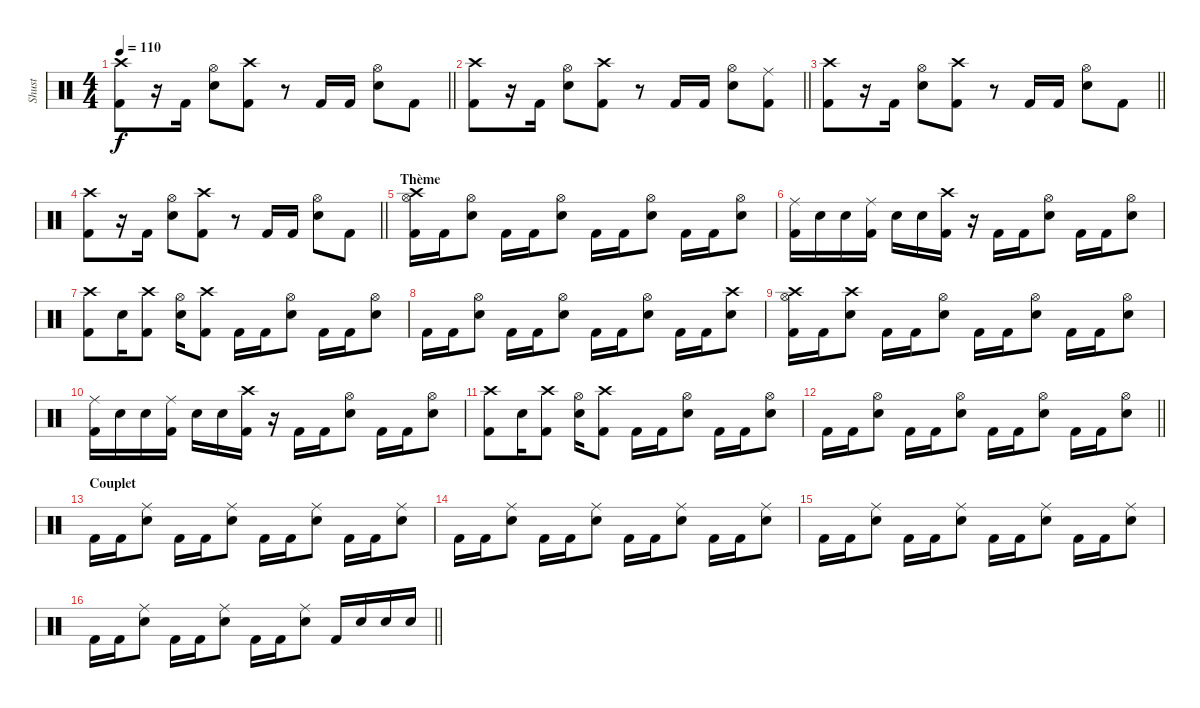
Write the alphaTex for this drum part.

\track ("Shust" "Shust") {instrument percussion}
\staff {score}
\articulation defaults
\ts (4 4)
\tempo 110
\clef neutral
\barLineRight lightlight
\ks c
("Crash high (hit)" "Kick (hit) 2").8{dy f} r.16 "Kick (hit) 2".16 ("Hi-Hat (open)" "Electric Snare (hit)").8 ("Crash high (hit)" "Kick (hit) 2").8 r.8 "Kick (hit) 2".16 "Kick (hit) 2".16 ("Hi-Hat (open)" "Electric Snare (hit)").8 "Kick (hit) 2".8 |
\barLineRight lightlight
("Crash high (hit)" "Kick (hit) 2").8 r.16 "Kick (hit) 2".16 ("Hi-Hat (open)" "Electric Snare (hit)").8 ("Crash high (hit)" "Kick (hit) 2").8 r.8 "Kick (hit) 2".16 "Kick (hit) 2".16 ("Hi-Hat (open)" "Electric Snare (hit)").8 ("Ride (middle)" "Kick (hit) 2").8 |
\barLineRight lightlight
("Crash high (hit)" "Kick (hit) 2").8 r.16 "Kick (hit) 2".16 ("Hi-Hat (open)" "Electric Snare (hit)").8 ("Crash high (hit)" "Kick (hit) 2").8 r.8 "Kick (hit) 2".16 "Kick (hit) 2".16 ("Hi-Hat (open)" "Electric Snare (hit)").8 "Kick (hit) 2".8 |
\barLineRight lightlight
("Crash high (hit)" "Kick (hit) 2").8 r.16 "Kick (hit) 2".16 ("Hi-Hat (open)" "Electric Snare (hit)").8 ("Crash high (hit)" "Kick (hit) 2").8 r.8 "Kick (hit) 2".16 "Kick (hit) 2".16 ("Hi-Hat (open)" "Electric Snare (hit)").8 "Kick (hit) 2".8 |
\section ("" "Thème")
("Crash high (hit)" "Hi-Hat (open)" "Kick (hit) 2").16 "Kick (hit) 2".16 ("Hi-Hat (open)" "Electric Snare (hit)").8 "Kick (hit) 2".16 "Kick (hit) 2".16 ("Hi-Hat (open)" "Electric Snare (hit)").8 "Kick (hit) 2".16 "Kick (hit) 2".16 ("Hi-Hat (open)" "Electric Snare (hit)").8 "Kick (hit) 2".16 "Kick (hit) 2".16 ("Hi-Hat (open)" "Electric Snare (hit)").8 |
("Ride (middle)" "Kick (hit) 2").16 "Electric Snare (hit)".16 "Electric Snare (hit)".16 ("Ride (middle)" "Kick (hit) 2").16 "Electric Snare (hit)".16 "Electric Snare (hit)".16 ("Crash high (hit)" "Kick (hit) 2").16 r.16 "Kick (hit) 2".16 "Kick (hit) 2".16 ("Hi-Hat (open)" "Electric Snare (hit)").8 "Kick (hit) 2".16 "Kick (hit) 2".16 ("Hi-Hat (open)" "Electric Snare (hit)").8 |
("Crash high (hit)" "Kick (hit) 2").8 "Electric Snare (hit)".16 ("Crash high (hit)" "Kick (hit) 2").8 ("Hi-Hat (open)" "Electric Snare (hit)").16 ("Crash high (hit)" "Kick (hit) 2").8 "Kick (hit) 2".16 "Kick (hit) 2".16 ("Hi-Hat (open)" "Electric Snare (hit)").8 "Kick (hit) 2".16 "Kick (hit) 2".16 ("Hi-Hat (open)" "Electric Snare (hit)").8 |
"Kick (hit) 2".16 "Kick (hit) 2".16 ("Hi-Hat (open)" "Electric Snare (hit)").8 "Kick (hit) 2".16 "Kick (hit) 2".16 ("Hi-Hat (open)" "Electric Snare (hit)").8 "Kick (hit) 2".16 "Kick (hit) 2".16 ("Hi-Hat (open)" "Electric Snare (hit)").8 "Kick (hit) 2".16 "Kick (hit) 2".16 ("Crash high (hit)" "Electric Snare (hit)").8 |
("Crash high (hit)" "Hi-Hat (open)" "Kick (hit) 2").16 "Kick (hit) 2".16 ("Crash high (hit)" "Electric Snare (hit)").8 "Kick (hit) 2".16 "Kick (hit) 2".16 ("Hi-Hat (open)" "Electric Snare (hit)").8 "Kick (hit) 2".16 "Kick (hit) 2".16 ("Hi-Hat (open)" "Electric Snare (hit)").8 "Kick (hit) 2".16 "Kick (hit) 2".16 ("Hi-Hat (open)" "Electric Snare (hit)").8 |
("Ride (middle)" "Kick (hit) 2").16 "Electric Snare (hit)".16 "Electric Snare (hit)".16 ("Ride (middle)" "Kick (hit) 2").16 "Electric Snare (hit)".16 "Electric Snare (hit)".16 ("Crash high (hit)" "Kick (hit) 2").16 r.16 "Kick (hit) 2".16 "Kick (hit) 2".16 ("Hi-Hat (open)" "Electric Snare (hit)").8 "Kick (hit) 2".16 "Kick (hit) 2".16 ("Hi-Hat (open)" "Electric Snare (hit)").8 |
("Crash high (hit)" "Kick (hit) 2").8 "Electric Snare (hit)".16 ("Crash high (hit)" "Kick (hit) 2").8 ("Hi-Hat (open)" "Electric Snare (hit)").16 ("Crash high (hit)" "Kick (hit) 2").8 "Kick (hit) 2".16 "Kick (hit) 2".16 ("Hi-Hat (open)" "Electric Snare (hit)").8 "Kick (hit) 2".16 "Kick (hit) 2".16 ("Hi-Hat (open)" "Electric Snare (hit)").8 |
\barLineRight lightlight "Kick (hit) 2".16 "Kick (hit) 2".16
("Hi-Hat (open)" "Electric Snare (hit)").8 "Kick (hit) 2".16 "Kick (hit) 2".16 ("Hi-Hat (open)" "Electric Snare (hit)").8 "Kick (hit) 2".16 "Kick (hit) 2".16 ("Hi-Hat (open)" "Electric Snare (hit)").8 "Kick (hit) 2".16 "Kick (hit) 2".16 ("Hi-Hat (open)" "Electric Snare (hit)").8 |
\section ("" "Couplet")
"Kick (hit) 2".16 "Kick (hit) 2".16 ("Ride (middle)" "Electric Snare (hit)").8 "Kick (hit) 2".16 "Kick (hit) 2".16 ("Ride (middle)" "Electric Snare (hit)").8 "Kick (hit) 2".16 "Kick (hit) 2".16 ("Ride (middle)" "Electric Snare (hit)").8 "Kick (hit) 2".16 "Kick (hit) 2".16 ("Ride (middle)" "Electric Snare (hit)").8 |
"Kick (hit) 2".16 "Kick (hit) 2".16 ("Ride (middle)" "Electric Snare (hit)").8 "Kick (hit) 2".16 "Kick (hit) 2".16 ("Ride (middle)" "Electric Snare (hit)").8 "Kick (hit) 2".16 "Kick (hit) 2".16 ("Ride (middle)" "Electric Snare (hit)").8 "Kick (hit) 2".16 "Kick (hit) 2".16 ("Ride (middle)" "Electric Snare (hit)").8 |
"Kick (hit) 2".16 "Kick (hit) 2".16 ("Ride (middle)" "Electric Snare (hit)").8 "Kick (hit) 2".16 "Kick (hit) 2".16 ("Ride (middle)" "Electric Snare (hit)").8 "Kick (hit) 2".16 "Kick (hit) 2".16 ("Ride (middle)" "Electric Snare (hit)").8 "Kick (hit) 2".16 "Kick (hit) 2".16 ("Ride (middle)" "Electric Snare (hit)").8 |
\barLineRight lightlight "Kick (hit) 2".16 "Kick (hit) 2".16
("Ride (middle)" "Electric Snare (hit)").8 "Kick (hit) 2".16 "Kick (hit) 2".16 ("Ride (middle)" "Electric Snare (hit)").8 "Kick (hit) 2".16 "Kick (hit) 2".16 ("Ride (middle)" "Electric Snare (hit)").8 "Kick (hit) 2".16 "Electric Snare (hit)".16 "Electric Snare (hit)".16 "Electric Snare (hit)".16
